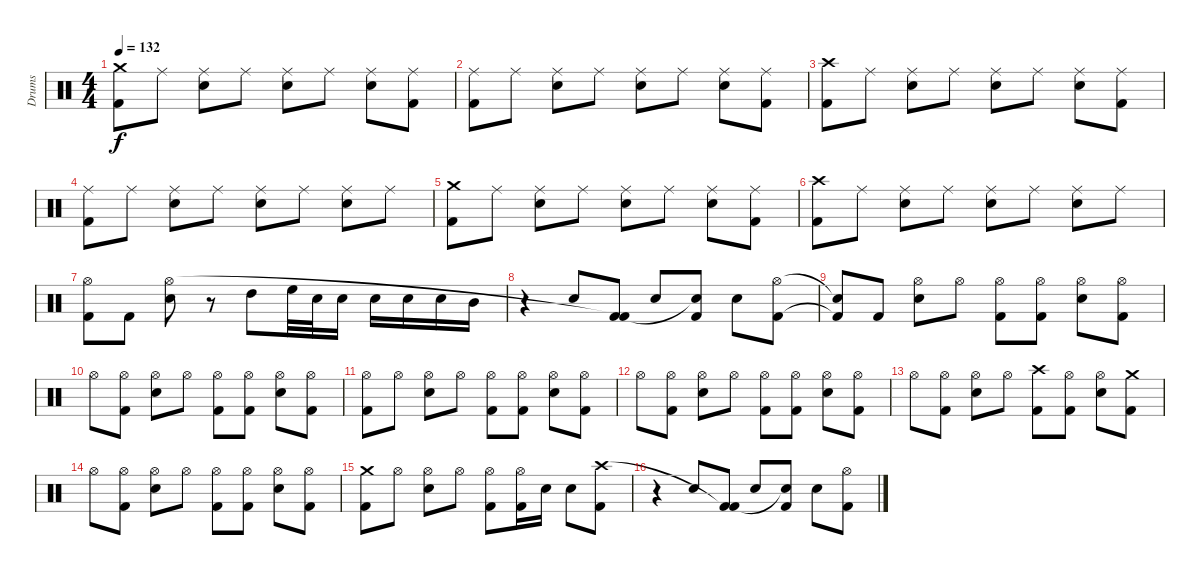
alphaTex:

\track ("Drums" "Drums") {instrument percussion}
\staff
\articulation defaults
\ts (4 4)
\tempo 132
\clef neutral
\ks c
("Kick (hit) 2" "Crash medium (hit)").8{dy f} "Ride (middle)".8 ("Snare (hit) 2" "Ride (middle)").8 "Ride (middle)".8 ("Snare (hit) 2" "Ride (middle)").8 "Ride (middle)".8 ("Snare (hit) 2" "Ride (middle)").8 ("Kick (hit) 2" "Ride (middle)").8 |
("Kick (hit) 2" "Ride (middle)").8 "Ride (middle)".8 ("Snare (hit) 2" "Ride (middle)").8 "Ride (middle)".8 ("Snare (hit) 2" "Ride (middle)").8 "Ride (middle)".8 ("Snare (hit) 2" "Ride (middle)").8 ("Kick (hit) 2" "Ride (middle)").8 |
("Kick (hit) 2" "Crash high (hit)").8 "Ride (middle)".8 ("Snare (hit) 2" "Ride (middle)").8 "Ride (middle)".8 ("Snare (hit) 2" "Ride (middle)").8 "Ride (middle)".8 ("Snare (hit) 2" "Ride (middle)").8 ("Kick (hit) 2" "Ride (middle)").8 |
("Kick (hit) 2" "Ride (middle)").8 "Ride (middle)".8 ("Snare (hit) 2" "Ride (middle)").8 "Ride (middle)".8 ("Snare (hit) 2" "Ride (middle)").8 "Ride (middle)".8 ("Snare (hit) 2" "Ride (middle)").8 "Ride (middle)".8 |
("Kick (hit) 2" "Crash medium (hit)").8 "Ride (middle)".8 ("Snare (hit) 2" "Ride (middle)").8 "Ride (middle)".8 ("Snare (hit) 2" "Ride (middle)").8 "Ride (middle)".8 ("Snare (hit) 2" "Ride (middle)").8 ("Kick (hit) 2" "Ride (middle)").8 |
("Kick (hit) 2" "Crash high (hit)").8 "Ride (middle)".8 ("Snare (hit) 2" "Ride (middle)").8 "Ride (middle)".8 ("Snare (hit) 2" "Ride (middle)").8 "Ride (middle)".8 ("Snare (hit) 2" "Ride (middle)").8 "Ride (middle)".8 |
("Kick (hit) 2" "Hi-Hat (open)").8 "Kick (hit) 2".8 ("Snare (hit) 2" "Hi-Hat (open)").8 r.8 "High Tom (hit)".8 "High Floor Tom (hit)".32 "Snare (hit) 2".32 "Snare (hit) 2".16 "Snare (hit) 2".16 "Snare (hit) 2".16 "Snare (hit) 2".16 "Mid Tom (hit)".16 |
r.4 "Snare (hit) 2".8 ("Kick (hit) 2" "Kick (hit) 2"{t}).8 "Snare (hit) 2".8 ("Kick (hit) 2" "Snare (hit)"{t}).8 "Snare (hit) 2".8 ("Kick (hit) 2" "Hi-Hat (open)").8 |
("Kick (hit) 2"{t} "Snare (hit)"{t}).8 "Kick (hit) 2".8 ("Snare (hit) 2" "Hi-Hat (open)").8 "Hi-Hat (open)".8 ("Kick (hit) 2" "Hi-Hat (open)").8 ("Kick (hit) 2" "Hi-Hat (open)").8 ("Snare (hit) 2" "Hi-Hat (open)").8 ("Kick (hit) 2" "Hi-Hat (open)").8 |
"Hi-Hat (open)".8 ("Kick (hit) 2" "Hi-Hat (open)").8 ("Snare (hit) 2" "Hi-Hat (open)").8 "Hi-Hat (open)".8 ("Kick (hit) 2" "Hi-Hat (open)").8 ("Kick (hit) 2" "Hi-Hat (open)").8 ("Snare (hit) 2" "Hi-Hat (open)").8 ("Kick (hit) 2" "Hi-Hat (open)").8 |
("Kick (hit) 2" "Hi-Hat (open)").8 "Hi-Hat (open)".8 ("Snare (hit) 2" "Hi-Hat (open)").8 "Hi-Hat (open)".8 ("Kick (hit) 2" "Hi-Hat (open)").8 ("Kick (hit) 2" "Hi-Hat (open)").8 ("Snare (hit) 2" "Hi-Hat (open)").8 ("Kick (hit) 2" "Hi-Hat (open)").8 |
"Hi-Hat (open)".8 ("Kick (hit) 2" "Hi-Hat (open)").8 ("Snare (hit) 2" "Hi-Hat (open)").8 "Hi-Hat (open)".8 ("Kick (hit) 2" "Hi-Hat (open)").8 ("Kick (hit) 2" "Hi-Hat (open)").8 ("Snare (hit) 2" "Hi-Hat (open)").8 ("Kick (hit) 2" "Hi-Hat (open)").8 |
"Hi-Hat (open)".8 ("Kick (hit) 2" "Hi-Hat (open)").8 ("Snare (hit) 2" "Hi-Hat (open)").8 "Hi-Hat (open)".8 ("Kick (hit) 2" "Crash high (hit)").8 ("Kick (hit) 2" "Hi-Hat (open)").8 ("Snare (hit) 2" "Hi-Hat (open)").8 ("Kick (hit) 2" "Crash medium (hit)").8 |
"Hi-Hat (open)".8 ("Kick (hit) 2" "Hi-Hat (open)").8 ("Snare (hit) 2" "Hi-Hat (open)").8 "Hi-Hat (open)".8 ("Kick (hit) 2" "Hi-Hat (open)").8 ("Kick (hit) 2" "Hi-Hat (open)").8 ("Snare (hit) 2" "Hi-Hat (open)").8 ("Kick (hit) 2" "Hi-Hat (open)").8 |
("Kick (hit) 2" "Crash medium (hit)").8 "Hi-Hat (open)".8 ("Snare (hit) 2" "Hi-Hat (open)").8 "Hi-Hat (open)".8 ("Kick (hit) 2" "Hi-Hat (open)").8 ("Kick (hit) 2" "Hi-Hat (open)").16 "Snare (hit) 2".16 "Snare (hit) 2".8 ("Kick (hit) 2" "Crash high (hit)").8 |
r.4 "Snare (hit) 2".8 ("Kick (hit) 2" "Kick (hit) 2"{t}).8 "Snare (hit) 2".8 ("Kick (hit) 2" "Snare (hit)"{t}).8 "Snare (hit) 2".8 ("Kick (hit) 2" "Hi-Hat (open)").8
